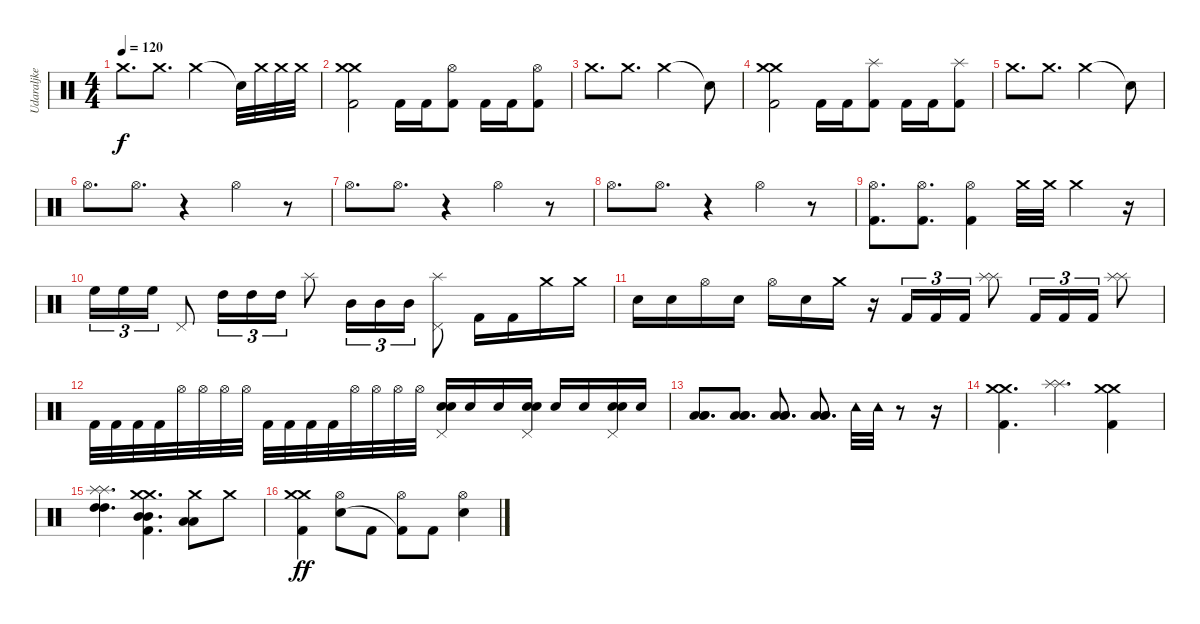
\track ("Udaraljke" "Udaraljke") {instrument percussion}
\staff {score}
\articulation defaults
\ts (4 4)
\tempo 120
\clef neutral
\ks c "Crash medium (hit)".8{d dy f} "Crash medium (hit)".8{d} "Crash medium (hit)".2 "Snare (hit)"{t}.32 "Crash medium (hit)".32 "Crash medium (hit)".32 "Crash medium (hit)".32
|
("Crash medium (hit)" "Crash medium (hit)" "Kick (hit) 2").2 "Kick (hit) 2".16 "Kick (hit) 2".16 ("Kick (hit) 2" "Hi-Hat (open)").8 "Kick (hit) 2".16 "Kick (hit) 2".16 ("Kick (hit) 2" "Hi-Hat (open)").8 |
"Crash medium (hit)".8{d} "Crash medium (hit)".8{d} "Crash medium (hit)".2 "Snare (hit)"{t}.8 |
("Crash medium (hit)" "Crash medium (hit)" "Kick (hit) 2").2 "Kick (hit) 2".16 "Kick (hit) 2".16 ("Kick (hit) 2" "Splash (hit)").8 "Kick (hit) 2".16 "Kick (hit) 2".16 ("Kick (hit) 2" "Splash (hit)").8 |
"Crash medium (hit)".8{d} "Crash medium (hit)".8{d} "Crash medium (hit)".2 "Snare (hit)"{t}.8 |
"Hi-Hat (open)".8{d} "Hi-Hat (open)".8{d} r.4 "Hi-Hat (open)".4 r.8 |
"Hi-Hat (open)".8{d} "Hi-Hat (open)".8{d} r.4 "Hi-Hat (open)".4 r.8 |
"Hi-Hat (open)".8{d} "Hi-Hat (open)".8{d} r.4 "Hi-Hat (open)".4 r.8 |
("Hi-Hat (open)" "Kick (hit) 2").8{d} ("Hi-Hat (open)" "Kick (hit) 2").8{d} ("Hi-Hat (open)" "Kick (hit) 2").4 "Crash medium (hit)".32 "Crash medium (hit)".32 "Crash medium (hit)".4 r.16 |
"High Floor Tom (hit)".16{tu (3 2)} "High Floor Tom (hit)".16{tu (3 2)} "High Floor Tom (hit)".16{tu (3 2)} "Pedal Hi-Hat (hit)".8 "High Tom (hit)".16{tu (3 2)} "High Tom (hit)".16{tu (3 2)} "High Tom (hit)".16{tu (3 2)} "Splash (hit)".8 "Mid Tom (hit)".16{tu (3 2)} "Mid Tom (hit)".16{tu (3 2)} "Mid Tom (hit)".16{tu (3 2)} ("Pedal Hi-Hat (hit)" "Splash (hit)").8 "Kick (hit) 2".16 "Kick (hit) 2".16 "Crash medium (hit)".16 "Crash medium (hit)".16 |
"Electric Snare (hit)".16 "Electric Snare (hit)".16 "Hi-Hat (open)".16 "Electric Snare (hit)".16 "Hi-Hat (open)".16 "Electric Snare (hit)".16 "Crash medium (hit)".16 r.16 "Kick (hit) 2".16{tu (3 2)} "Kick (hit) 2".16{tu (3 2)} "Kick (hit) 2".16{tu (3 2)} ("Splash (hit)" "Splash (hit)").8 "Kick (hit) 2".16{tu (3 2)} "Kick (hit) 2".16{tu (3 2)} "Kick (hit) 2".16{tu (3 2)} ("Splash (hit)" "Splash (hit)").8 |
"Kick (hit) 2".32 "Kick (hit) 2".32 "Kick (hit) 2".32 "Kick (hit) 2".32 "Hi-Hat (open)".32 "Hi-Hat (open)".32 "Hi-Hat (open)".32 "Hi-Hat (open)".32 "Kick (hit) 2".32 "Kick (hit) 2".32 "Kick (hit) 2".32 "Kick (hit) 2".32 "Hi-Hat (open)".32 "Hi-Hat (open)".32 "Hi-Hat (open)".32 "Hi-Hat (open)".32 ("Electric Snare (hit)" "Electric Snare (hit)" "Pedal Hi-Hat (hit)").16 "Electric Snare (hit)".16 "Electric Snare (hit)".16 ("Electric Snare (hit)" "Electric Snare (hit)" "Pedal Hi-Hat (hit)").16 "Electric Snare (hit)".16 "Electric Snare (hit)".16 ("Electric Snare (hit)" "Electric Snare (hit)" "Pedal Hi-Hat (hit)").16 "Electric Snare (hit)".16 |
("Low Floor Tom (hit)" "Low Floor Tom (hit)" "Low Floor Tom (hit)").8{d} ("Low Floor Tom (hit)" "Low Floor Tom (hit)" "Low Floor Tom (hit)").8{d} ("Low Floor Tom (hit)" "Low Floor Tom (hit)" "Low Floor Tom (hit)").8{d} ("Low Floor Tom (hit)" "Low Floor Tom (hit)" "Low Floor Tom (hit)").8{d} "Tambourine (hit)".32 "Tambourine (hit)".32 r.8 r.16 |
("Crash medium (hit)" "Crash medium (hit)" "Kick (hit) 2").4{d} ("Splash (hit)" "Splash (hit)").4{d} ("Crash medium (hit)" "Crash medium (hit)" "Kick (hit) 2").4 |
("High Tom (hit)" "Splash (hit)" "Splash (hit)" "High Tom (hit)").4{d} ("Mid Tom (hit)" "Crash medium (hit)" "Crash medium (hit)" "Kick (hit) 2" "Mid Tom (hit)").4{d} ("Low Tom (hit)" "Crash medium (hit)" "Low Tom (hit)").8 "Crash medium (hit)".8 |
("Crash medium (hit)" "Crash medium (hit)" "Kick (hit) 2").4{dy ff} ("Hi-Hat (open)" "Electric Snare (hit)").8 "Kick (hit) 2".8 ("Hi-Hat (open)" "Kick (hit) 2"{t}).8 "Kick (hit) 2".8 ("Hi-Hat (open)" "Electric Snare (hit)").4
